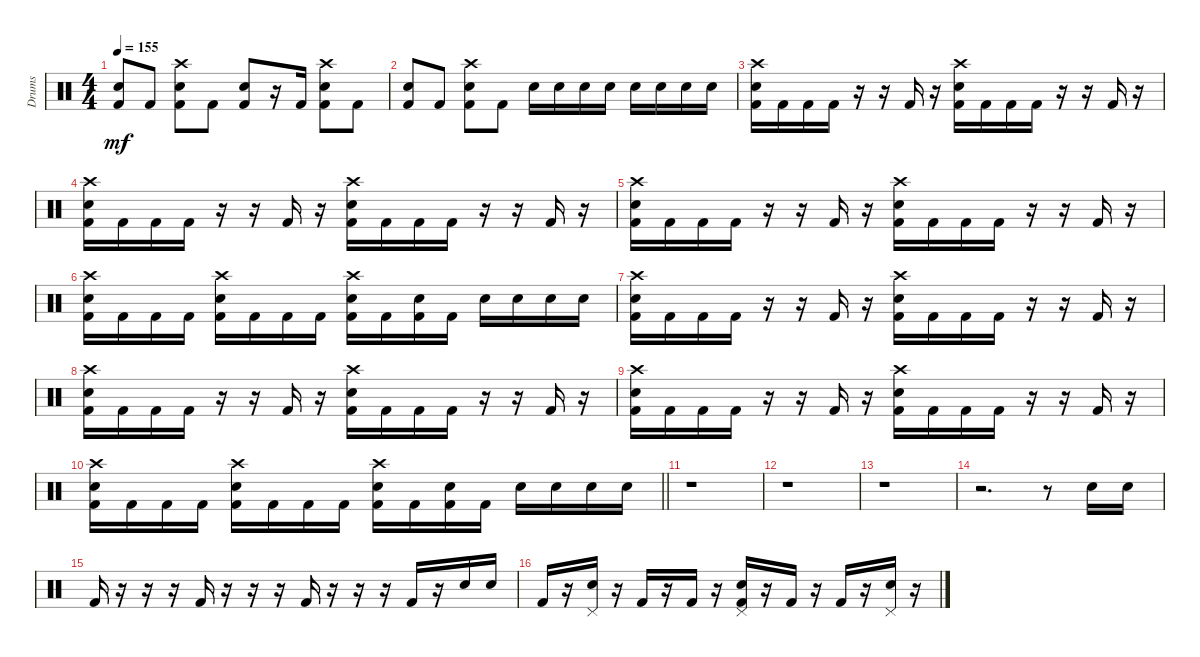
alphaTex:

\track ("Drums" "Drums") {instrument percussion}
\staff {score}
\articulation defaults
\ts (4 4)
\tempo 155
\clef neutral
\ks c
("Kick (hit) 2" "Electric Snare (hit)").8{dy mf} "Kick (hit) 2".8 ("Kick (hit) 2" "Electric Snare (hit)" "Crash high (hit)").8 "Kick (hit) 2".8 ("Kick (hit) 2" "Electric Snare (hit)").8 r.16 "Kick (hit) 2".16 ("Kick (hit) 2" "Electric Snare (hit)" "Crash high (hit)").8 "Kick (hit) 2".8 |
("Kick (hit) 2" "Electric Snare (hit)").8 "Kick (hit) 2".8 ("Kick (hit) 2" "Electric Snare (hit)" "Crash high (hit)").8 "Kick (hit) 2".8 "Electric Snare (hit)".16 "Electric Snare (hit)".16 "Electric Snare (hit)".16 "Electric Snare (hit)".16 "Electric Snare (hit)".16 "Electric Snare (hit)".16 "Electric Snare (hit)".16 "Electric Snare (hit)".16 |
("Kick (hit) 2" "Electric Snare (hit)" "Crash high (hit)").16 "Kick (hit) 2".16 "Kick (hit) 2".16 "Kick (hit) 2".16 r.16 r.16 "Kick (hit) 2".16 r.16 ("Kick (hit) 2" "Electric Snare (hit)" "Crash high (hit)").16 "Kick (hit) 2".16 "Kick (hit) 2".16 "Kick (hit) 2".16 r.16 r.16 "Kick (hit) 2".16 r.16 |
("Kick (hit) 2" "Electric Snare (hit)" "Crash high (hit)").16 "Kick (hit) 2".16 "Kick (hit) 2".16 "Kick (hit) 2".16 r.16 r.16 "Kick (hit) 2".16 r.16 ("Kick (hit) 2" "Electric Snare (hit)" "Crash high (hit)").16 "Kick (hit) 2".16 "Kick (hit) 2".16 "Kick (hit) 2".16 r.16 r.16 "Kick (hit) 2".16 r.16 |
("Kick (hit) 2" "Electric Snare (hit)" "Crash high (hit)").16 "Kick (hit) 2".16 "Kick (hit) 2".16 "Kick (hit) 2".16 r.16 r.16 "Kick (hit) 2".16 r.16 ("Kick (hit) 2" "Electric Snare (hit)" "Crash high (hit)").16 "Kick (hit) 2".16 "Kick (hit) 2".16 "Kick (hit) 2".16 r.16 r.16 "Kick (hit) 2".16 r.16 |
("Kick (hit) 2" "Electric Snare (hit)" "Crash high (hit)").16 "Kick (hit) 2".16 "Kick (hit) 2".16 "Kick (hit) 2".16 ("Kick (hit) 2" "Electric Snare (hit)" "Crash high (hit)").16 "Kick (hit) 2".16 "Kick (hit) 2".16 "Kick (hit) 2".16 ("Kick (hit) 2" "Electric Snare (hit)" "Crash high (hit)").16 "Kick (hit) 2".16 ("Kick (hit) 2" "Electric Snare (hit)").16 "Kick (hit) 2".16 "Electric Snare (hit)".16 "Electric Snare (hit)".16 "Electric Snare (hit)".16 "Electric Snare (hit)".16 |
("Kick (hit) 2" "Electric Snare (hit)" "Crash high (hit)").16 "Kick (hit) 2".16 "Kick (hit) 2".16 "Kick (hit) 2".16 r.16 r.16 "Kick (hit) 2".16 r.16 ("Kick (hit) 2" "Electric Snare (hit)" "Crash high (hit)").16 "Kick (hit) 2".16 "Kick (hit) 2".16 "Kick (hit) 2".16 r.16 r.16 "Kick (hit) 2".16 r.16 |
("Kick (hit) 2" "Electric Snare (hit)" "Crash high (hit)").16 "Kick (hit) 2".16 "Kick (hit) 2".16 "Kick (hit) 2".16 r.16 r.16 "Kick (hit) 2".16 r.16 ("Kick (hit) 2" "Electric Snare (hit)" "Crash high (hit)").16 "Kick (hit) 2".16 "Kick (hit) 2".16 "Kick (hit) 2".16 r.16 r.16 "Kick (hit) 2".16 r.16 |
("Kick (hit) 2" "Electric Snare (hit)" "Crash high (hit)").16 "Kick (hit) 2".16 "Kick (hit) 2".16 "Kick (hit) 2".16 r.16 r.16 "Kick (hit) 2".16 r.16 ("Kick (hit) 2" "Electric Snare (hit)" "Crash high (hit)").16 "Kick (hit) 2".16 "Kick (hit) 2".16 "Kick (hit) 2".16 r.16 r.16 "Kick (hit) 2".16 r.16 |
\barLineRight lightlight
("Kick (hit) 2" "Electric Snare (hit)" "Crash high (hit)").16 "Kick (hit) 2".16 "Kick (hit) 2".16 "Kick (hit) 2".16 ("Kick (hit) 2" "Electric Snare (hit)" "Crash high (hit)").16 "Kick (hit) 2".16 "Kick (hit) 2".16 "Kick (hit) 2".16 ("Kick (hit) 2" "Electric Snare (hit)" "Crash high (hit)").16 "Kick (hit) 2".16 ("Kick (hit) 2" "Electric Snare (hit)").16 "Kick (hit) 2".16 "Electric Snare (hit)".16 "Electric Snare (hit)".16 "Electric Snare (hit)".16 "Electric Snare (hit)".16 |
r.1 |
r.1 |
r.1 |
r.2{d} r.8 "Electric Snare (hit)".16 "Electric Snare (hit)".16 |
"Kick (hit) 2".16 r.16 r.16 r.16 "Kick (hit) 2".16 r.16 r.16 r.16 "Kick (hit) 2".16 r.16 r.16 r.16 "Kick (hit) 2".16 r.16 "Electric Snare (hit)".16 "Electric Snare (hit)".16 |
"Kick (hit) 2".16 r.16 ("Electric Snare (hit)" "Pedal Hi-Hat (hit)").16 r.16 "Kick (hit) 2".16 r.16 "Kick (hit) 2".16 r.16 ("Electric Snare (hit)" "Pedal Hi-Hat (hit)" "Kick (hit) 2").16 r.16 "Kick (hit) 2".16 r.16 "Kick (hit) 2".16 r.16 ("Pedal Hi-Hat (hit)" "Electric Snare (hit)").16 r.16
